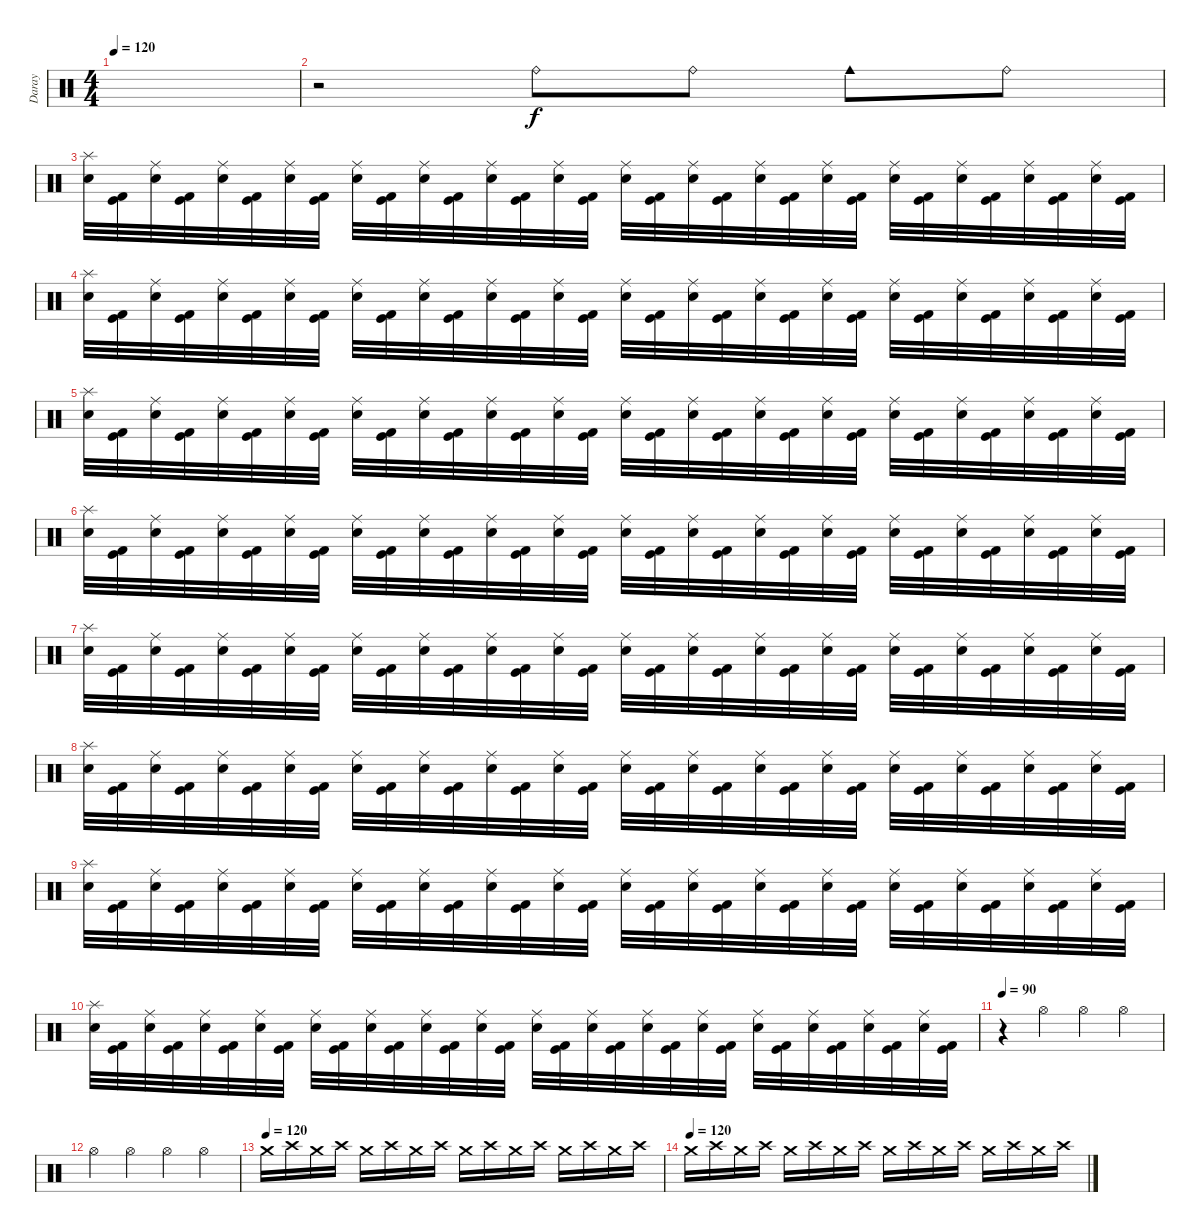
\track ("Daray" "Daray") {instrument percussion}
\staff {score}
\articulation defaults
\ts (4 4)
\tempo 120
\clef neutral
\ks c
|
r.2 "Ride (bell)".8 "Ride (bell)".8 "Cowbell medium (hit)".8 "Ride (bell)".8 |
("Splash (hit)" "Snare (hit) 2").32 ("Kick (hit) 2" "Kick (hit)").32 ("Ride (middle)" "Snare (hit) 2").32 ("Kick (hit) 2" "Kick (hit)").32 ("Ride (middle)" "Snare (hit) 2").32 ("Kick (hit) 2" "Kick (hit)").32 ("Ride (middle)" "Snare (hit) 2").32 ("Kick (hit) 2" "Kick (hit)").32 ("Ride (middle)" "Snare (hit) 2").32 ("Kick (hit) 2" "Kick (hit)").32 ("Ride (middle)" "Snare (hit) 2").32 ("Kick (hit) 2" "Kick (hit)").32 ("Ride (middle)" "Snare (hit) 2").32 ("Kick (hit) 2" "Kick (hit)").32 ("Ride (middle)" "Snare (hit) 2").32 ("Kick (hit) 2" "Kick (hit)").32 ("Ride (middle)" "Snare (hit) 2").32 ("Kick (hit) 2" "Kick (hit)").32 ("Ride (middle)" "Snare (hit) 2").32 ("Kick (hit) 2" "Kick (hit)").32 ("Ride (middle)" "Snare (hit) 2").32 ("Kick (hit) 2" "Kick (hit)").32 ("Ride (middle)" "Snare (hit) 2").32 ("Kick (hit) 2" "Kick (hit)").32 ("Ride (middle)" "Snare (hit) 2").32 ("Kick (hit) 2" "Kick (hit)").32 ("Ride (middle)" "Snare (hit) 2").32 ("Kick (hit) 2" "Kick (hit)").32 ("Ride (middle)" "Snare (hit) 2").32 ("Kick (hit) 2" "Kick (hit)").32 ("Ride (middle)" "Snare (hit) 2").32 ("Kick (hit) 2" "Kick (hit)").32 |
("Splash (hit)" "Snare (hit) 2").32 ("Kick (hit) 2" "Kick (hit)").32 ("Ride (middle)" "Snare (hit) 2").32 ("Kick (hit) 2" "Kick (hit)").32 ("Ride (middle)" "Snare (hit) 2").32 ("Kick (hit) 2" "Kick (hit)").32 ("Ride (middle)" "Snare (hit) 2").32 ("Kick (hit) 2" "Kick (hit)").32 ("Ride (middle)" "Snare (hit) 2").32 ("Kick (hit) 2" "Kick (hit)").32 ("Ride (middle)" "Snare (hit) 2").32 ("Kick (hit) 2" "Kick (hit)").32 ("Ride (middle)" "Snare (hit) 2").32 ("Kick (hit) 2" "Kick (hit)").32 ("Ride (middle)" "Snare (hit) 2").32 ("Kick (hit) 2" "Kick (hit)").32 ("Ride (middle)" "Snare (hit) 2").32 ("Kick (hit) 2" "Kick (hit)").32 ("Ride (middle)" "Snare (hit) 2").32 ("Kick (hit) 2" "Kick (hit)").32 ("Ride (middle)" "Snare (hit) 2").32 ("Kick (hit) 2" "Kick (hit)").32 ("Ride (middle)" "Snare (hit) 2").32 ("Kick (hit) 2" "Kick (hit)").32 ("Ride (middle)" "Snare (hit) 2").32 ("Kick (hit) 2" "Kick (hit)").32 ("Ride (middle)" "Snare (hit) 2").32 ("Kick (hit) 2" "Kick (hit)").32 ("Ride (middle)" "Snare (hit) 2").32 ("Kick (hit) 2" "Kick (hit)").32 ("Ride (middle)" "Snare (hit) 2").32 ("Kick (hit) 2" "Kick (hit)").32 |
("Splash (hit)" "Snare (hit) 2").32 ("Kick (hit) 2" "Kick (hit)").32 ("Ride (middle)" "Snare (hit) 2").32 ("Kick (hit) 2" "Kick (hit)").32 ("Ride (middle)" "Snare (hit) 2").32 ("Kick (hit) 2" "Kick (hit)").32 ("Ride (middle)" "Snare (hit) 2").32 ("Kick (hit) 2" "Kick (hit)").32 ("Ride (middle)" "Snare (hit) 2").32 ("Kick (hit) 2" "Kick (hit)").32 ("Ride (middle)" "Snare (hit) 2").32 ("Kick (hit) 2" "Kick (hit)").32 ("Ride (middle)" "Snare (hit) 2").32 ("Kick (hit) 2" "Kick (hit)").32 ("Ride (middle)" "Snare (hit) 2").32 ("Kick (hit) 2" "Kick (hit)").32 ("Ride (middle)" "Snare (hit) 2").32 ("Kick (hit) 2" "Kick (hit)").32 ("Ride (middle)" "Snare (hit) 2").32 ("Kick (hit) 2" "Kick (hit)").32 ("Ride (middle)" "Snare (hit) 2").32 ("Kick (hit) 2" "Kick (hit)").32 ("Ride (middle)" "Snare (hit) 2").32 ("Kick (hit) 2" "Kick (hit)").32 ("Ride (middle)" "Snare (hit) 2").32 ("Kick (hit) 2" "Kick (hit)").32 ("Ride (middle)" "Snare (hit) 2").32 ("Kick (hit) 2" "Kick (hit)").32 ("Ride (middle)" "Snare (hit) 2").32 ("Kick (hit) 2" "Kick (hit)").32 ("Ride (middle)" "Snare (hit) 2").32 ("Kick (hit) 2" "Kick (hit)").32 |
("Splash (hit)" "Snare (hit) 2").32 ("Kick (hit) 2" "Kick (hit)").32 ("Ride (middle)" "Snare (hit) 2").32 ("Kick (hit) 2" "Kick (hit)").32 ("Ride (middle)" "Snare (hit) 2").32 ("Kick (hit) 2" "Kick (hit)").32 ("Ride (middle)" "Snare (hit) 2").32 ("Kick (hit) 2" "Kick (hit)").32 ("Ride (middle)" "Snare (hit) 2").32 ("Kick (hit) 2" "Kick (hit)").32 ("Ride (middle)" "Snare (hit) 2").32 ("Kick (hit) 2" "Kick (hit)").32 ("Ride (middle)" "Snare (hit) 2").32 ("Kick (hit) 2" "Kick (hit)").32 ("Ride (middle)" "Snare (hit) 2").32 ("Kick (hit) 2" "Kick (hit)").32 ("Ride (middle)" "Snare (hit) 2").32 ("Kick (hit) 2" "Kick (hit)").32 ("Ride (middle)" "Snare (hit) 2").32 ("Kick (hit) 2" "Kick (hit)").32 ("Ride (middle)" "Snare (hit) 2").32 ("Kick (hit) 2" "Kick (hit)").32 ("Ride (middle)" "Snare (hit) 2").32 ("Kick (hit) 2" "Kick (hit)").32 ("Ride (middle)" "Snare (hit) 2").32 ("Kick (hit) 2" "Kick (hit)").32 ("Ride (middle)" "Snare (hit) 2").32 ("Kick (hit) 2" "Kick (hit)").32 ("Ride (middle)" "Snare (hit) 2").32 ("Kick (hit) 2" "Kick (hit)").32 ("Ride (middle)" "Snare (hit) 2").32 ("Kick (hit) 2" "Kick (hit)").32 |
("Splash (hit)" "Snare (hit) 2").32 ("Kick (hit) 2" "Kick (hit)").32 ("Ride (middle)" "Snare (hit) 2").32 ("Kick (hit) 2" "Kick (hit)").32 ("Ride (middle)" "Snare (hit) 2").32 ("Kick (hit) 2" "Kick (hit)").32 ("Ride (middle)" "Snare (hit) 2").32 ("Kick (hit) 2" "Kick (hit)").32 ("Ride (middle)" "Snare (hit) 2").32 ("Kick (hit) 2" "Kick (hit)").32 ("Ride (middle)" "Snare (hit) 2").32 ("Kick (hit) 2" "Kick (hit)").32 ("Ride (middle)" "Snare (hit) 2").32 ("Kick (hit) 2" "Kick (hit)").32 ("Ride (middle)" "Snare (hit) 2").32 ("Kick (hit) 2" "Kick (hit)").32 ("Ride (middle)" "Snare (hit) 2").32 ("Kick (hit) 2" "Kick (hit)").32 ("Ride (middle)" "Snare (hit) 2").32 ("Kick (hit) 2" "Kick (hit)").32 ("Ride (middle)" "Snare (hit) 2").32 ("Kick (hit) 2" "Kick (hit)").32 ("Ride (middle)" "Snare (hit) 2").32 ("Kick (hit) 2" "Kick (hit)").32 ("Ride (middle)" "Snare (hit) 2").32 ("Kick (hit) 2" "Kick (hit)").32 ("Ride (middle)" "Snare (hit) 2").32 ("Kick (hit) 2" "Kick (hit)").32 ("Ride (middle)" "Snare (hit) 2").32 ("Kick (hit) 2" "Kick (hit)").32 ("Ride (middle)" "Snare (hit) 2").32 ("Kick (hit) 2" "Kick (hit)").32 |
("Splash (hit)" "Snare (hit) 2").32 ("Kick (hit) 2" "Kick (hit)").32 ("Ride (middle)" "Snare (hit) 2").32 ("Kick (hit) 2" "Kick (hit)").32 ("Ride (middle)" "Snare (hit) 2").32 ("Kick (hit) 2" "Kick (hit)").32 ("Ride (middle)" "Snare (hit) 2").32 ("Kick (hit) 2" "Kick (hit)").32 ("Ride (middle)" "Snare (hit) 2").32 ("Kick (hit) 2" "Kick (hit)").32 ("Ride (middle)" "Snare (hit) 2").32 ("Kick (hit) 2" "Kick (hit)").32 ("Ride (middle)" "Snare (hit) 2").32 ("Kick (hit) 2" "Kick (hit)").32 ("Ride (middle)" "Snare (hit) 2").32 ("Kick (hit) 2" "Kick (hit)").32 ("Ride (middle)" "Snare (hit) 2").32 ("Kick (hit) 2" "Kick (hit)").32 ("Ride (middle)" "Snare (hit) 2").32 ("Kick (hit) 2" "Kick (hit)").32 ("Ride (middle)" "Snare (hit) 2").32 ("Kick (hit) 2" "Kick (hit)").32 ("Ride (middle)" "Snare (hit) 2").32 ("Kick (hit) 2" "Kick (hit)").32 ("Ride (middle)" "Snare (hit) 2").32 ("Kick (hit) 2" "Kick (hit)").32 ("Ride (middle)" "Snare (hit) 2").32 ("Kick (hit) 2" "Kick (hit)").32 ("Ride (middle)" "Snare (hit) 2").32 ("Kick (hit) 2" "Kick (hit)").32 ("Ride (middle)" "Snare (hit) 2").32 ("Kick (hit) 2" "Kick (hit)").32 |
("Splash (hit)" "Snare (hit) 2").32 ("Kick (hit) 2" "Kick (hit)").32 ("Ride (middle)" "Snare (hit) 2").32 ("Kick (hit) 2" "Kick (hit)").32 ("Ride (middle)" "Snare (hit) 2").32 ("Kick (hit) 2" "Kick (hit)").32 ("Ride (middle)" "Snare (hit) 2").32 ("Kick (hit) 2" "Kick (hit)").32 ("Ride (middle)" "Snare (hit) 2").32 ("Kick (hit) 2" "Kick (hit)").32 ("Ride (middle)" "Snare (hit) 2").32 ("Kick (hit) 2" "Kick (hit)").32 ("Ride (middle)" "Snare (hit) 2").32 ("Kick (hit) 2" "Kick (hit)").32 ("Ride (middle)" "Snare (hit) 2").32 ("Kick (hit) 2" "Kick (hit)").32 ("Ride (middle)" "Snare (hit) 2").32 ("Kick (hit) 2" "Kick (hit)").32 ("Ride (middle)" "Snare (hit) 2").32 ("Kick (hit) 2" "Kick (hit)").32 ("Ride (middle)" "Snare (hit) 2").32 ("Kick (hit) 2" "Kick (hit)").32 ("Ride (middle)" "Snare (hit) 2").32 ("Kick (hit) 2" "Kick (hit)").32 ("Ride (middle)" "Snare (hit) 2").32 ("Kick (hit) 2" "Kick (hit)").32 ("Ride (middle)" "Snare (hit) 2").32 ("Kick (hit) 2" "Kick (hit)").32 ("Ride (middle)" "Snare (hit) 2").32 ("Kick (hit) 2" "Kick (hit)").32 ("Ride (middle)" "Snare (hit) 2").32 ("Kick (hit) 2" "Kick (hit)").32 |
("Splash (hit)" "Snare (hit) 2").32 ("Kick (hit) 2" "Kick (hit)").32 ("Ride (middle)" "Snare (hit) 2").32 ("Kick (hit) 2" "Kick (hit)").32 ("Ride (middle)" "Snare (hit) 2").32 ("Kick (hit) 2" "Kick (hit)").32 ("Ride (middle)" "Snare (hit) 2").32 ("Kick (hit) 2" "Kick (hit)").32 ("Ride (middle)" "Snare (hit) 2").32 ("Kick (hit) 2" "Kick (hit)").32 ("Ride (middle)" "Snare (hit) 2").32 ("Kick (hit) 2" "Kick (hit)").32 ("Ride (middle)" "Snare (hit) 2").32 ("Kick (hit) 2" "Kick (hit)").32 ("Ride (middle)" "Snare (hit) 2").32 ("Kick (hit) 2" "Kick (hit)").32 ("Ride (middle)" "Snare (hit) 2").32 ("Kick (hit) 2" "Kick (hit)").32 ("Ride (middle)" "Snare (hit) 2").32 ("Kick (hit) 2" "Kick (hit)").32 ("Ride (middle)" "Snare (hit) 2").32 ("Kick (hit) 2" "Kick (hit)").32 ("Ride (middle)" "Snare (hit) 2").32 ("Kick (hit) 2" "Kick (hit)").32 ("Ride (middle)" "Snare (hit) 2").32 ("Kick (hit) 2" "Kick (hit)").32 ("Ride (middle)" "Snare (hit) 2").32 ("Kick (hit) 2" "Kick (hit)").32 ("Ride (middle)" "Snare (hit) 2").32 ("Kick (hit) 2" "Kick (hit)").32 ("Ride (middle)" "Snare (hit) 2").32 ("Kick (hit) 2" "Kick (hit)").32 |
\tempo 90
r.4 "Hi-Hat (open)".4 "Hi-Hat (open)".4 "Hi-Hat (open)".4 |
"Hi-Hat (open)".4 "Hi-Hat (open)".4 "Hi-Hat (open)".4 "Hi-Hat (open)".4 |
\tempo (120)
"Crash medium (hit)".16 "Crash high (hit)".16 "Crash medium (hit)".16 "Crash high (hit)".16 "Crash medium (hit)".16 "Crash high (hit)".16 "Crash medium (hit)".16 "Crash high (hit)".16 "Crash medium (hit)".16 "Crash high (hit)".16 "Crash medium (hit)".16 "Crash high (hit)".16 "Crash medium (hit)".16 "Crash high (hit)".16 "Crash medium (hit)".16 "Crash high (hit)".16 |
\tempo (120)
"Crash medium (hit)".16 "Crash high (hit)".16 "Crash medium (hit)".16 "Crash high (hit)".16 "Crash medium (hit)".16 "Crash high (hit)".16 "Crash medium (hit)".16 "Crash high (hit)".16 "Crash medium (hit)".16 "Crash high (hit)".16 "Crash medium (hit)".16 "Crash high (hit)".16 "Crash medium (hit)".16 "Crash high (hit)".16 "Crash medium (hit)".16 "Crash high (hit)".16
